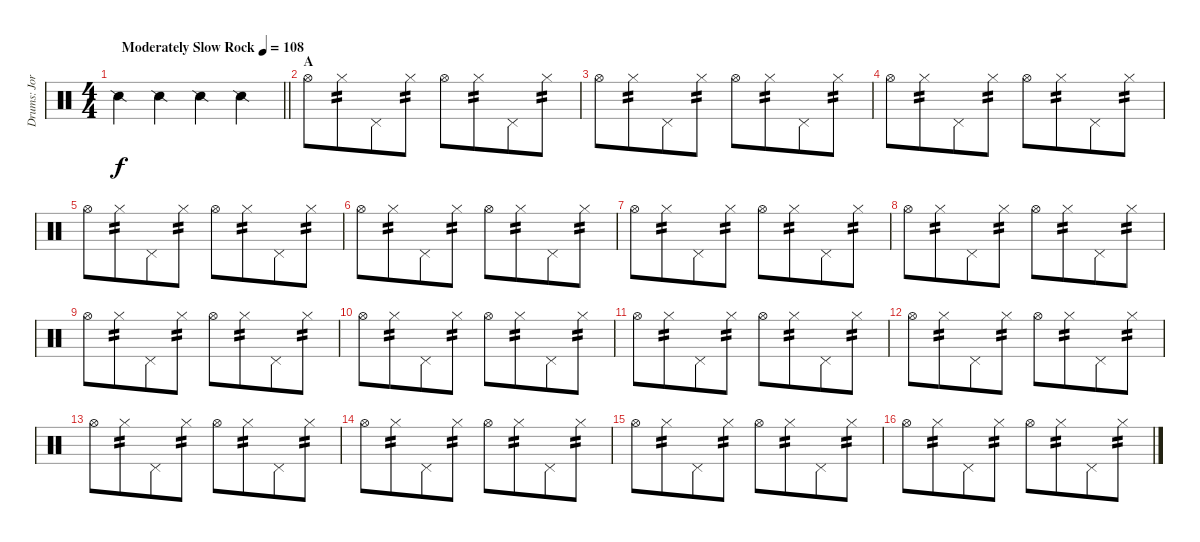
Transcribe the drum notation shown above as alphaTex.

\track ("Drums: Jorg" "Drums: Jor") {instrument percussion}
\staff {score}
\articulation defaults
\ts (4 4)
\tempo (108 "Moderately Slow Rock")
\clef neutral
\barLineRight lightlight
\ks c "Snare (side stick) 2".4{dy f} "Snare (side stick) 2".4 "Snare (side stick) 2".4 "Snare (side stick) 2".4
|
\section ("" "A")
"Hi-Hat (open)".8 "Hi-Hat (closed)".8{tp 2 beam merge} "Pedal Hi-Hat (hit)".8 "Hi-Hat (closed)".8{tp 2} "Hi-Hat (open)".8 "Hi-Hat (closed)".8{tp 2 beam merge} "Pedal Hi-Hat (hit)".8 "Hi-Hat (closed)".8{tp 2} |
"Hi-Hat (open)".8 "Hi-Hat (closed)".8{tp 2 beam merge} "Pedal Hi-Hat (hit)".8 "Hi-Hat (closed)".8{tp 2} "Hi-Hat (open)".8 "Hi-Hat (closed)".8{tp 2 beam merge} "Pedal Hi-Hat (hit)".8 "Hi-Hat (closed)".8{tp 2} |
"Hi-Hat (open)".8 "Hi-Hat (closed)".8{tp 2 beam merge} "Pedal Hi-Hat (hit)".8 "Hi-Hat (closed)".8{tp 2} "Hi-Hat (open)".8 "Hi-Hat (closed)".8{tp 2 beam merge} "Pedal Hi-Hat (hit)".8 "Hi-Hat (closed)".8{tp 2} |
"Hi-Hat (open)".8 "Hi-Hat (closed)".8{tp 2 beam merge} "Pedal Hi-Hat (hit)".8 "Hi-Hat (closed)".8{tp 2} "Hi-Hat (open)".8 "Hi-Hat (closed)".8{tp 2 beam merge} "Pedal Hi-Hat (hit)".8 "Hi-Hat (closed)".8{tp 2} |
"Hi-Hat (open)".8 "Hi-Hat (closed)".8{tp 2 beam merge} "Pedal Hi-Hat (hit)".8 "Hi-Hat (closed)".8{tp 2} "Hi-Hat (open)".8 "Hi-Hat (closed)".8{tp 2 beam merge} "Pedal Hi-Hat (hit)".8 "Hi-Hat (closed)".8{tp 2} |
"Hi-Hat (open)".8 "Hi-Hat (closed)".8{tp 2 beam merge} "Pedal Hi-Hat (hit)".8 "Hi-Hat (closed)".8{tp 2} "Hi-Hat (open)".8 "Hi-Hat (closed)".8{tp 2 beam merge} "Pedal Hi-Hat (hit)".8 "Hi-Hat (closed)".8{tp 2} |
"Hi-Hat (open)".8 "Hi-Hat (closed)".8{tp 2 beam merge} "Pedal Hi-Hat (hit)".8 "Hi-Hat (closed)".8{tp 2} "Hi-Hat (open)".8 "Hi-Hat (closed)".8{tp 2 beam merge} "Pedal Hi-Hat (hit)".8 "Hi-Hat (closed)".8{tp 2} |
"Hi-Hat (open)".8 "Hi-Hat (closed)".8{tp 2 beam merge} "Pedal Hi-Hat (hit)".8 "Hi-Hat (closed)".8{tp 2} "Hi-Hat (open)".8 "Hi-Hat (closed)".8{tp 2 beam merge} "Pedal Hi-Hat (hit)".8 "Hi-Hat (closed)".8{tp 2} |
"Hi-Hat (open)".8 "Hi-Hat (closed)".8{tp 2 beam merge} "Pedal Hi-Hat (hit)".8 "Hi-Hat (closed)".8{tp 2} "Hi-Hat (open)".8 "Hi-Hat (closed)".8{tp 2 beam merge} "Pedal Hi-Hat (hit)".8 "Hi-Hat (closed)".8{tp 2} |
"Hi-Hat (open)".8 "Hi-Hat (closed)".8{tp 2 beam merge} "Pedal Hi-Hat (hit)".8 "Hi-Hat (closed)".8{tp 2} "Hi-Hat (open)".8 "Hi-Hat (closed)".8{tp 2 beam merge} "Pedal Hi-Hat (hit)".8 "Hi-Hat (closed)".8{tp 2} |
"Hi-Hat (open)".8 "Hi-Hat (closed)".8{tp 2 beam merge} "Pedal Hi-Hat (hit)".8 "Hi-Hat (closed)".8{tp 2} "Hi-Hat (open)".8 "Hi-Hat (closed)".8{tp 2 beam merge} "Pedal Hi-Hat (hit)".8 "Hi-Hat (closed)".8{tp 2} |
"Hi-Hat (open)".8 "Hi-Hat (closed)".8{tp 2 beam merge} "Pedal Hi-Hat (hit)".8 "Hi-Hat (closed)".8{tp 2} "Hi-Hat (open)".8 "Hi-Hat (closed)".8{tp 2 beam merge} "Pedal Hi-Hat (hit)".8 "Hi-Hat (closed)".8{tp 2} |
"Hi-Hat (open)".8 "Hi-Hat (closed)".8{tp 2 beam merge} "Pedal Hi-Hat (hit)".8 "Hi-Hat (closed)".8{tp 2} "Hi-Hat (open)".8 "Hi-Hat (closed)".8{tp 2 beam merge} "Pedal Hi-Hat (hit)".8 "Hi-Hat (closed)".8{tp 2} |
"Hi-Hat (open)".8 "Hi-Hat (closed)".8{tp 2 beam merge} "Pedal Hi-Hat (hit)".8 "Hi-Hat (closed)".8{tp 2} "Hi-Hat (open)".8 "Hi-Hat (closed)".8{tp 2 beam merge} "Pedal Hi-Hat (hit)".8 "Hi-Hat (closed)".8{tp 2} |
"Hi-Hat (open)".8 "Hi-Hat (closed)".8{tp 2 beam merge} "Pedal Hi-Hat (hit)".8 "Hi-Hat (closed)".8{tp 2} "Hi-Hat (open)".8 "Hi-Hat (closed)".8{tp 2 beam merge} "Pedal Hi-Hat (hit)".8 "Hi-Hat (closed)".8{tp 2}
